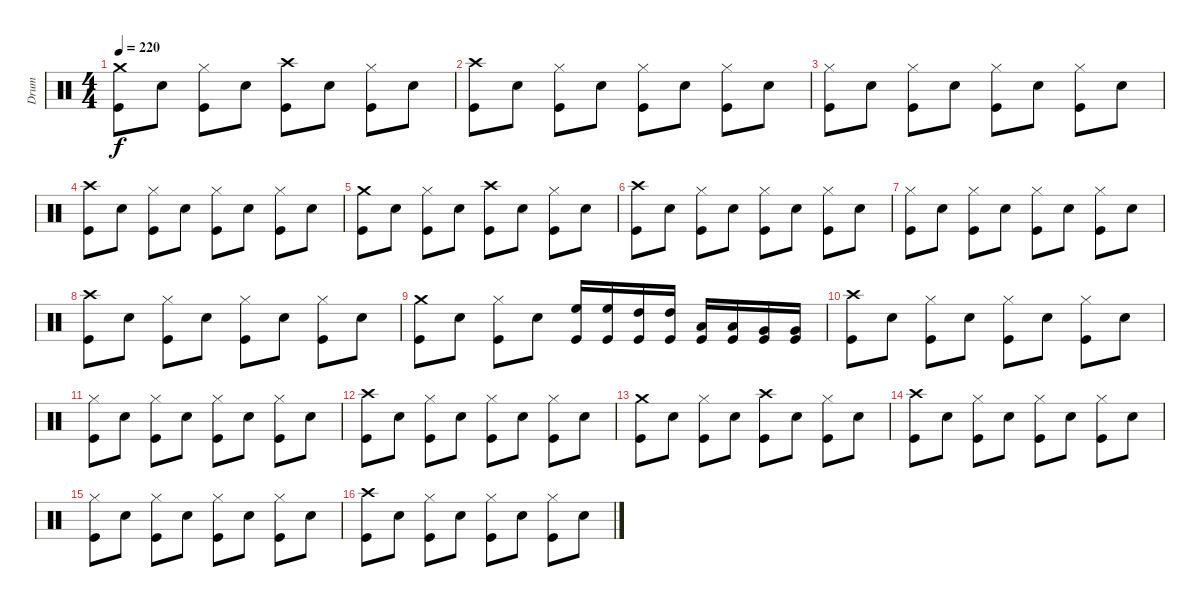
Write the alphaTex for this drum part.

\track ("Drum" "Drum") {instrument percussion}
\staff {score}
\articulation defaults
\ts (4 4)
\tempo 220
\clef neutral
\ks c
("Crash medium (hit)" "Kick (hit)").8{dy f} "Snare (hit) 2".8 ("Hi-Hat (closed)" "Kick (hit)").8 "Snare (hit) 2".8 ("Crash high (hit)" "Kick (hit)").8 "Snare (hit) 2".8 ("Hi-Hat (closed)" "Kick (hit)").8 "Snare (hit) 2".8 |
("Crash high (hit)" "Kick (hit)").8 "Snare (hit) 2".8 ("Hi-Hat (closed)" "Kick (hit)").8 "Snare (hit) 2".8 ("Hi-Hat (closed)" "Kick (hit)").8 "Snare (hit) 2".8 ("Hi-Hat (closed)" "Kick (hit)").8 "Snare (hit) 2".8 |
("Hi-Hat (closed)" "Kick (hit)").8 "Snare (hit) 2".8 ("Hi-Hat (closed)" "Kick (hit)").8 "Snare (hit) 2".8 ("Hi-Hat (closed)" "Kick (hit)").8 "Snare (hit) 2".8 ("Hi-Hat (closed)" "Kick (hit)").8 "Snare (hit) 2".8 |
("Crash high (hit)" "Kick (hit)").8 "Snare (hit) 2".8 ("Hi-Hat (closed)" "Kick (hit)").8 "Snare (hit) 2".8 ("Hi-Hat (closed)" "Kick (hit)").8 "Snare (hit) 2".8 ("Hi-Hat (closed)" "Kick (hit)").8 "Snare (hit) 2".8 |
("Crash medium (hit)" "Kick (hit)").8 "Snare (hit) 2".8 ("Hi-Hat (closed)" "Kick (hit)").8 "Snare (hit) 2".8 ("Crash high (hit)" "Kick (hit)").8 "Snare (hit) 2".8 ("Hi-Hat (closed)" "Kick (hit)").8 "Snare (hit) 2".8 |
("Crash high (hit)" "Kick (hit)").8 "Snare (hit) 2".8 ("Hi-Hat (closed)" "Kick (hit)").8 "Snare (hit) 2".8 ("Hi-Hat (closed)" "Kick (hit)").8 "Snare (hit) 2".8 ("Hi-Hat (closed)" "Kick (hit)").8 "Snare (hit) 2".8 |
("Hi-Hat (closed)" "Kick (hit)").8 "Snare (hit) 2".8 ("Hi-Hat (closed)" "Kick (hit)").8 "Snare (hit) 2".8 ("Hi-Hat (closed)" "Kick (hit)").8 "Snare (hit) 2".8 ("Hi-Hat (closed)" "Kick (hit)").8 "Snare (hit) 2".8 |
("Crash high (hit)" "Kick (hit)").8 "Snare (hit) 2".8 ("Hi-Hat (closed)" "Kick (hit)").8 "Snare (hit) 2".8 ("Hi-Hat (closed)" "Kick (hit)").8 "Snare (hit) 2".8 ("Hi-Hat (closed)" "Kick (hit)").8 "Snare (hit) 2".8 |
("Crash medium (hit)" "Kick (hit)").8 "Snare (hit) 2".8 ("Hi-Hat (closed)" "Kick (hit)").8 "Snare (hit) 2".8 ("High Floor Tom (hit)" "Kick (hit)").16 ("High Floor Tom (hit)" "Kick (hit)").16 ("High Tom (hit)" "Kick (hit)").16 ("High Tom (hit)" "Kick (hit)").16 ("Low Tom (hit)" "Kick (hit)").16 ("Low Tom (hit)" "Kick (hit)").16 ("Very Low Tom (hit)" "Kick (hit)").16 ("Very Low Tom (hit)" "Kick (hit)").16 |
("Crash high (hit)" "Kick (hit)").8 "Snare (hit) 2".8 ("Hi-Hat (closed)" "Kick (hit)").8 "Snare (hit) 2".8 ("Hi-Hat (closed)" "Kick (hit)").8 "Snare (hit) 2".8 ("Hi-Hat (closed)" "Kick (hit)").8 "Snare (hit) 2".8 |
("Hi-Hat (closed)" "Kick (hit)").8 "Snare (hit) 2".8 ("Hi-Hat (closed)" "Kick (hit)").8 "Snare (hit) 2".8 ("Hi-Hat (closed)" "Kick (hit)").8 "Snare (hit) 2".8 ("Hi-Hat (closed)" "Kick (hit)").8 "Snare (hit) 2".8 |
("Crash high (hit)" "Kick (hit)").8 "Snare (hit) 2".8 ("Hi-Hat (closed)" "Kick (hit)").8 "Snare (hit) 2".8 ("Hi-Hat (closed)" "Kick (hit)").8 "Snare (hit) 2".8 ("Hi-Hat (closed)" "Kick (hit)").8 "Snare (hit) 2".8 |
("Crash medium (hit)" "Kick (hit)").8 "Snare (hit) 2".8 ("Hi-Hat (closed)" "Kick (hit)").8 "Snare (hit) 2".8 ("Crash high (hit)" "Kick (hit)").8 "Snare (hit) 2".8 ("Hi-Hat (closed)" "Kick (hit)").8 "Snare (hit) 2".8 |
("Crash high (hit)" "Kick (hit)").8 "Snare (hit) 2".8 ("Hi-Hat (closed)" "Kick (hit)").8 "Snare (hit) 2".8 ("Hi-Hat (closed)" "Kick (hit)").8 "Snare (hit) 2".8 ("Hi-Hat (closed)" "Kick (hit)").8 "Snare (hit) 2".8 |
("Hi-Hat (closed)" "Kick (hit)").8 "Snare (hit) 2".8 ("Hi-Hat (closed)" "Kick (hit)").8 "Snare (hit) 2".8 ("Hi-Hat (closed)" "Kick (hit)").8 "Snare (hit) 2".8 ("Hi-Hat (closed)" "Kick (hit)").8 "Snare (hit) 2".8 |
("Crash high (hit)" "Kick (hit)").8 "Snare (hit) 2".8 ("Hi-Hat (closed)" "Kick (hit)").8 "Snare (hit) 2".8 ("Hi-Hat (closed)" "Kick (hit)").8 "Snare (hit) 2".8 ("Hi-Hat (closed)" "Kick (hit)").8 "Snare (hit) 2".8
